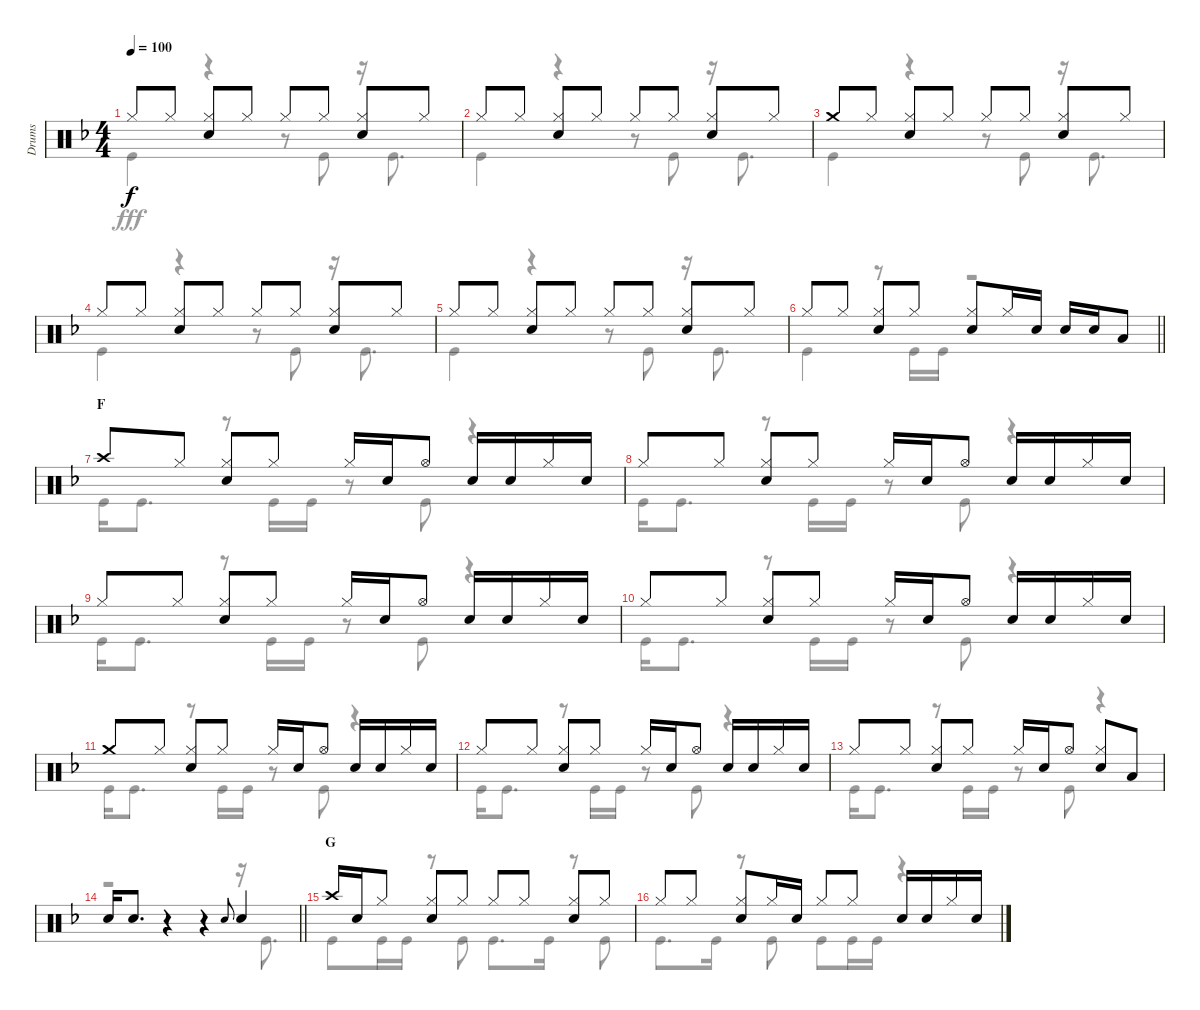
\track ("Drums" "Drums") {instrument percussion}
\staff {score}
\articulation defaults
\voice
\ts (4 4)
\tempo 100
\clef neutral
\ks f "Hi-Hat (closed)".8{dy f} "Hi-Hat (closed)".8
("Hi-Hat (closed)" "Snare (hit) 2").8 "Hi-Hat (closed)".8 "Hi-Hat (closed)".8 "Hi-Hat (closed)".8 ("Hi-Hat (closed)" "Snare (hit) 2").8 "Hi-Hat (closed)".8 |
"Hi-Hat (closed)".8 "Hi-Hat (closed)".8 ("Hi-Hat (closed)" "Snare (hit) 2").8 "Hi-Hat (closed)".8 "Hi-Hat (closed)".8 "Hi-Hat (closed)".8 ("Hi-Hat (closed)" "Snare (hit) 2").8 "Hi-Hat (closed)".8 |
"Crash medium (hit)".8 "Hi-Hat (closed)".8 ("Hi-Hat (closed)" "Snare (hit) 2").8 "Hi-Hat (closed)".8 "Hi-Hat (closed)".8 "Hi-Hat (closed)".8 ("Hi-Hat (closed)" "Snare (hit) 2").8 "Hi-Hat (closed)".8 |
"Hi-Hat (closed)".8 "Hi-Hat (closed)".8 ("Hi-Hat (closed)" "Snare (hit) 2").8 "Hi-Hat (closed)".8 "Hi-Hat (closed)".8 "Hi-Hat (closed)".8 ("Hi-Hat (closed)" "Snare (hit) 2").8 "Hi-Hat (closed)".8 |
"Hi-Hat (closed)".8 "Hi-Hat (closed)".8 ("Hi-Hat (closed)" "Snare (hit) 2").8 "Hi-Hat (closed)".8 "Hi-Hat (closed)".8 "Hi-Hat (closed)".8 ("Hi-Hat (closed)" "Snare (hit) 2").8 "Hi-Hat (closed)".8 |
\barLineRight lightlight "Hi-Hat (closed)".8 "Hi-Hat (closed)".8
("Hi-Hat (closed)" "Snare (hit) 2").8 "Hi-Hat (closed)".8 ("Hi-Hat (closed)" "Snare (hit) 2").8 "Hi-Hat (closed)".16 "Snare (hit) 2".16 "Snare (hit) 2".16 "Snare (hit) 2".16 "Low Tom (hit)".8 |
\section ("" "F")
"Crash high (hit)".8 "Hi-Hat (closed)".8 ("Hi-Hat (closed)" "Snare (hit) 2").8 "Hi-Hat (closed)".8 "Hi-Hat (closed)".16 "Snare (hit) 2".16 "Hi-Hat (open)".8 "Snare (hit) 2".16 "Snare (hit) 2".16 "Hi-Hat (closed)".16 "Snare (hit) 2".16 |
"Hi-Hat (closed)".8 "Hi-Hat (closed)".8 ("Hi-Hat (closed)" "Snare (hit) 2").8 "Hi-Hat (closed)".8 "Hi-Hat (closed)".16 "Snare (hit) 2".16 "Hi-Hat (open)".8 "Snare (hit) 2".16 "Snare (hit) 2".16 "Hi-Hat (closed)".16 "Snare (hit) 2".16 |
"Hi-Hat (closed)".8 "Hi-Hat (closed)".8 ("Hi-Hat (closed)" "Snare (hit) 2").8 "Hi-Hat (closed)".8 "Hi-Hat (closed)".16 "Snare (hit) 2".16 "Hi-Hat (open)".8 "Snare (hit) 2".16 "Snare (hit) 2".16 "Hi-Hat (closed)".16 "Snare (hit) 2".16 |
"Hi-Hat (closed)".8 "Hi-Hat (closed)".8 ("Hi-Hat (closed)" "Snare (hit) 2").8 "Hi-Hat (closed)".8 "Hi-Hat (closed)".16 "Snare (hit) 2".16 "Hi-Hat (open)".8 "Snare (hit) 2".16 "Snare (hit) 2".16 "Hi-Hat (closed)".16 "Snare (hit) 2".16 |
"Crash medium (hit)".8 "Hi-Hat (closed)".8 ("Hi-Hat (closed)" "Snare (hit) 2").8 "Hi-Hat (closed)".8 "Hi-Hat (closed)".16 "Snare (hit) 2".16 "Hi-Hat (open)".8 "Snare (hit) 2".16 "Snare (hit) 2".16 "Hi-Hat (closed)".16 "Snare (hit) 2".16 |
"Hi-Hat (closed)".8 "Hi-Hat (closed)".8 ("Hi-Hat (closed)" "Snare (hit) 2").8 "Hi-Hat (closed)".8 "Hi-Hat (closed)".16 "Snare (hit) 2".16 "Hi-Hat (open)".8 "Snare (hit) 2".16 "Snare (hit) 2".16 "Hi-Hat (closed)".16 "Snare (hit) 2".16 |
"Hi-Hat (closed)".8 "Hi-Hat (closed)".8 ("Hi-Hat (closed)" "Snare (hit) 2").8 "Hi-Hat (closed)".8 "Hi-Hat (closed)".16 "Snare (hit) 2".16 "Hi-Hat (open)".8 ("Hi-Hat (closed)" "Snare (hit) 2").8 "Low Tom (hit)".8 |
\barLineRight lightlight "Snare (hit) 2".16 "Snare (hit) 2".8{d}
r.4 r.4 "Snare (hit) 2".8{gr onbeat} "Snare (hit) 2".4 |
\section ("" "G")
"Crash high (hit)".16 "Snare (hit) 2".16 "Hi-Hat (closed)".8 ("Hi-Hat (closed)" "Snare (hit) 2").8 "Hi-Hat (closed)".8 "Hi-Hat (closed)".8 "Hi-Hat (closed)".8 ("Hi-Hat (closed)" "Snare (hit) 2").8 "Hi-Hat (closed)".8 |
"Hi-Hat (closed)".8 "Hi-Hat (closed)".8 ("Hi-Hat (closed)" "Snare (hit) 2").8 "Hi-Hat (closed)".16 "Snare (hit) 2".16 "Hi-Hat (closed)".8 "Hi-Hat (closed)".8 "Snare (hit) 2".16 "Snare (hit) 2".16 "Hi-Hat (closed)".16 "Snare (hit) 2".16
\voice
\clef neutral
\ottava regular
\simile none
\ks f "Kick (hit)".4{dy fff}
r.4 r.8 "Kick (hit)".8 r.16 "Kick (hit)".8{d} |
"Kick (hit)".4 r.4 r.8 "Kick (hit)".8 r.16 "Kick (hit)".8{d} |
"Kick (hit)".4 r.4 r.8 "Kick (hit)".8 r.16 "Kick (hit)".8{d} |
"Kick (hit)".4 r.4 r.8 "Kick (hit)".8 r.16 "Kick (hit)".8{d} |
"Kick (hit)".4 r.4 r.8 "Kick (hit)".8 r.16 "Kick (hit)".8{d} |
\barLineRight lightlight "Kick (hit)".4
r.8 "Kick (hit)".16 "Kick (hit)".16 r.2 |
"Kick (hit)".16 "Kick (hit)".8{d} r.8 "Kick (hit)".16 "Kick (hit)".16 r.8 "Kick (hit)".8 r.4 |
"Kick (hit)".16 "Kick (hit)".8{d} r.8 "Kick (hit)".16 "Kick (hit)".16 r.8 "Kick (hit)".8 r.4 |
"Kick (hit)".16 "Kick (hit)".8{d} r.8 "Kick (hit)".16 "Kick (hit)".16 r.8 "Kick (hit)".8 r.4 |
"Kick (hit)".16 "Kick (hit)".8{d} r.8 "Kick (hit)".16 "Kick (hit)".16 r.8 "Kick (hit)".8 r.4 |
"Kick (hit)".16 "Kick (hit)".8{d} r.8 "Kick (hit)".16 "Kick (hit)".16 r.8 "Kick (hit)".8 r.4 |
"Kick (hit)".16 "Kick (hit)".8{d} r.8 "Kick (hit)".16 "Kick (hit)".16 r.8 "Kick (hit)".8 r.4 |
"Kick (hit)".16 "Kick (hit)".8{d} r.8 "Kick (hit)".16 "Kick (hit)".16 r.8 "Kick (hit)".8 r.4 |
\barLineRight lightlight
r.2 r.4 r.16 "Kick (hit)".8{d} |
"Kick (hit)".8 "Kick (hit)".16 "Kick (hit)".16 r.8 "Kick (hit)".8 "Kick (hit)".8{d} "Kick (hit)".16 r.8 "Kick (hit)".8 |
"Kick (hit)".8{d} "Kick (hit)".16 r.8 "Kick (hit)".8 "Kick (hit)".8 "Kick (hit)".16 "Kick (hit)".16 r.4
